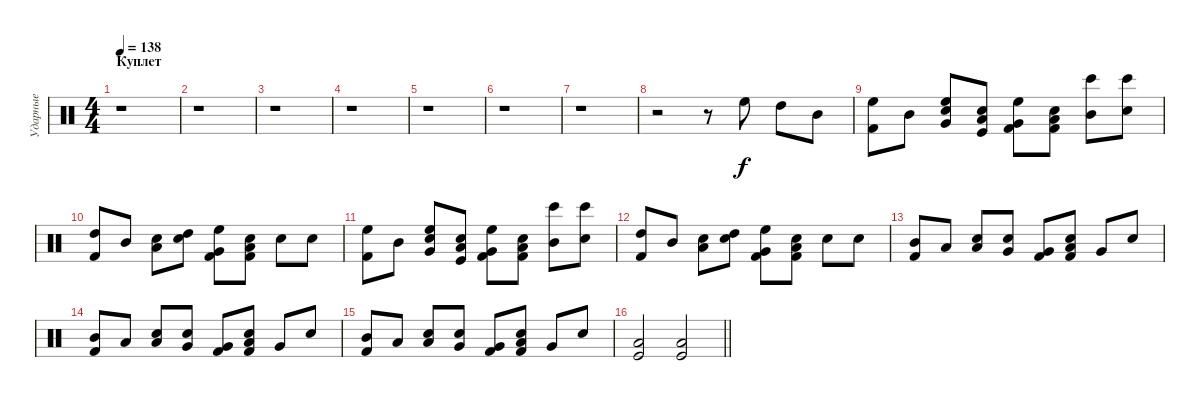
\track ("Ударные" "Ударные") {instrument percussion}
\staff {score}
\articulation defaults
\ts (4 4)
\section ("" "Куплет")
\tempo 138
\clef neutral
\ks c
r.1{dy f} |
r.1 |
r.1 |
r.1 |
r.1 |
r.1 |
r.1 |
r.2 r.8 "High Floor Tom (hit)".8 "High Tom (hit)".8 "Mid Tom (hit)".8 |
("Kick (hit) 2" "High Floor Tom (hit)").8 "Mid Tom (hit)".8 ("Snare (hit) 2" "Very Low Tom (hit)" "High Floor Tom (hit)").8 ("Snare (hit) 2" "Low Tom (hit)" "Kick (hit)").8 ("Very Low Tom (hit)" "High Floor Tom (hit)" "Kick (hit) 2").8 ("Snare (hit) 2" "Low Floor Tom (hit)" "Kick (hit) 2").8 ("Mid Tom (hit)" "Bongo High (hit)").8 ("Snare (hit) 2" "Bongo High (hit)").8 |
("High Tom (hit)" "Kick (hit) 2").8 "Mid Tom (hit)".8 ("Snare (hit) 2" "Low Tom (hit)").8 ("Snare (hit) 2" "High Tom (hit)").8 ("Very Low Tom (hit)" "High Floor Tom (hit)" "Kick (hit) 2").8 ("Snare (hit) 2" "Low Floor Tom (hit)" "Kick (hit) 2").8 "Snare (hit) 2".8 "Snare (hit) 2".8 |
("Kick (hit) 2" "High Floor Tom (hit)").8 "Mid Tom (hit)".8 ("Snare (hit) 2" "Very Low Tom (hit)" "High Floor Tom (hit)").8 ("Snare (hit) 2" "Low Tom (hit)" "Kick (hit)").8 ("Very Low Tom (hit)" "High Floor Tom (hit)" "Kick (hit) 2").8 ("Snare (hit) 2" "Low Floor Tom (hit)" "Kick (hit) 2").8 ("Mid Tom (hit)" "Bongo High (hit)").8 ("Snare (hit) 2" "Bongo High (hit)").8 |
("High Tom (hit)" "Kick (hit) 2").8 "Mid Tom (hit)".8 ("Snare (hit) 2" "Low Tom (hit)").8 ("Snare (hit) 2" "High Tom (hit)").8 ("Very Low Tom (hit)" "High Floor Tom (hit)" "Kick (hit) 2").8 ("Snare (hit) 2" "Low Floor Tom (hit)" "Kick (hit) 2").8 "Snare (hit) 2".8 "Snare (hit) 2".8 |
("Mid Tom (hit)" "Kick (hit) 2").8 "Low Tom (hit)".8 ("Snare (hit) 2" "Low Floor Tom (hit)").8 ("Snare (hit) 2" "Very Low Tom (hit)").8 ("Very Low Tom (hit)" "Kick (hit) 2").8 ("Low Floor Tom (hit)" "Snare (hit) 2" "Kick (hit) 2").8 "Very Low Tom (hit)".8 "Snare (hit) 2".8 |
("Mid Tom (hit)" "Kick (hit) 2").8 "Low Tom (hit)".8 ("Snare (hit) 2" "Low Floor Tom (hit)").8 ("Snare (hit) 2" "Very Low Tom (hit)").8 ("Very Low Tom (hit)" "Kick (hit) 2").8 ("Low Floor Tom (hit)" "Snare (hit) 2" "Kick (hit) 2").8 "Very Low Tom (hit)".8 "Snare (hit) 2".8 |
("Mid Tom (hit)" "Kick (hit) 2").8 "Low Tom (hit)".8 ("Snare (hit) 2" "Low Floor Tom (hit)").8 ("Snare (hit) 2" "Very Low Tom (hit)").8 ("Very Low Tom (hit)" "Kick (hit) 2").8 ("Low Floor Tom (hit)" "Snare (hit) 2" "Kick (hit) 2").8 "Very Low Tom (hit)".8 "Snare (hit) 2".8 |
\barLineRight lightlight
("Kick (hit)" "Low Floor Tom (hit)").2 ("Kick (hit)" "Low Floor Tom (hit)").2
